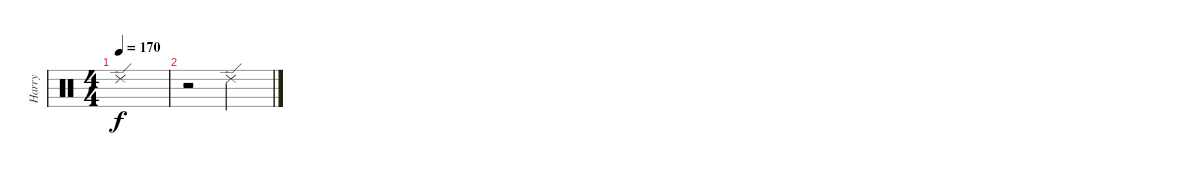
\track ("Harry" "Harry") {instrument percussion}
\staff {score}
\articulation defaults
\ts (4 4)
\tempo 170
\clef neutral
\ks c "Ride (edge) 2".1{dy f}
|
r.2 "Ride (edge) 2".2
